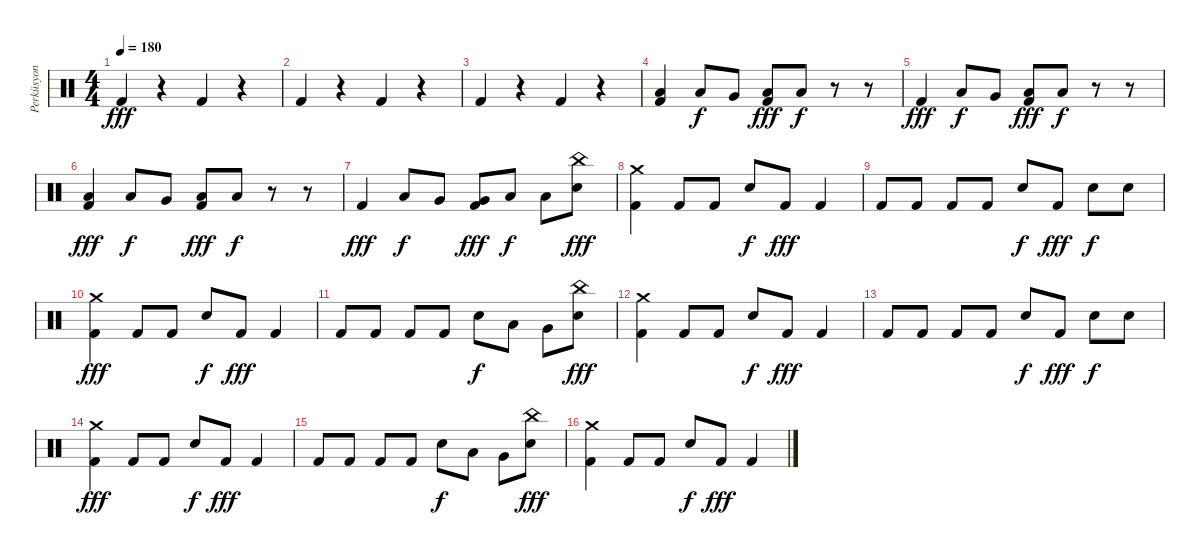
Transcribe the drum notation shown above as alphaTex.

\track ("Perküsyon" "Perküsyon") {instrument percussion}
\staff {score}
\articulation defaults
\ts (4 4)
\tempo 180
\clef neutral
\ks c "Kick (hit) 2".4{dy fff}
r.4 "Kick (hit) 2".4 r.4 |
"Kick (hit) 2".4 r.4 "Kick (hit) 2".4 r.4 |
"Kick (hit) 2".4 r.4 "Kick (hit) 2".4 r.4 |
("Low Floor Tom (hit)" "Kick (hit) 2").4 "Low Floor Tom (hit)".8{dy f} "Very Low Tom (hit)".8 ("Low Tom (hit)" "Kick (hit) 2").8{dy fff} "Low Floor Tom (hit)".8{dy f} r.8 r.8 |
"Kick (hit) 2".4{dy fff} "Low Floor Tom (hit)".8{dy f} "Very Low Tom (hit)".8 ("Low Tom (hit)" "Kick (hit) 2").8{dy fff} "Low Floor Tom (hit)".8{dy f} r.8 r.8 |
("Low Floor Tom (hit)" "Kick (hit) 2").4{dy fff} "Low Floor Tom (hit)".8{dy f} "Very Low Tom (hit)".8 ("Low Tom (hit)" "Kick (hit) 2").8{dy fff} "Low Floor Tom (hit)".8{dy f} r.8 r.8 |
"Kick (hit) 2".4{dy fff} "Low Floor Tom (hit)".8{dy f} "Very Low Tom (hit)".8 ("Very Low Tom (hit)" "Kick (hit) 2").8{dy fff} "Low Tom (hit)".8{dy f} "Low Tom (hit)".8 ("China (hit)" "Electric Snare (hit)").8{dy fff} |
("Crash medium (hit)" "Kick (hit) 2").4 "Kick (hit) 2".8 "Kick (hit) 2".8 "Electric Snare (hit)".8{dy f} "Kick (hit) 2".8{dy fff} "Kick (hit) 2".4 |
"Kick (hit) 2".8 "Kick (hit) 2".8 "Kick (hit) 2".8 "Kick (hit) 2".8 "Electric Snare (hit)".8{dy f} "Kick (hit) 2".8{dy fff} "Electric Snare (hit)".8{dy f} "Electric Snare (hit)".8 |
("Crash medium (hit)" "Kick (hit) 2").4{dy fff} "Kick (hit) 2".8 "Kick (hit) 2".8 "Electric Snare (hit)".8{dy f} "Kick (hit) 2".8{dy fff} "Kick (hit) 2".4 |
"Kick (hit) 2".8 "Kick (hit) 2".8 "Kick (hit) 2".8 "Kick (hit) 2".8 "Electric Snare (hit)".8{dy f} "Low Tom (hit)".8 "Very Low Tom (hit)".8 ("China (hit)" "Electric Snare (hit)").8{dy fff} |
("Crash medium (hit)" "Kick (hit) 2").4 "Kick (hit) 2".8 "Kick (hit) 2".8 "Electric Snare (hit)".8{dy f} "Kick (hit) 2".8{dy fff} "Kick (hit) 2".4 |
"Kick (hit) 2".8 "Kick (hit) 2".8 "Kick (hit) 2".8 "Kick (hit) 2".8 "Electric Snare (hit)".8{dy f} "Kick (hit) 2".8{dy fff} "Electric Snare (hit)".8{dy f} "Electric Snare (hit)".8 |
("Crash medium (hit)" "Kick (hit) 2").4{dy fff} "Kick (hit) 2".8 "Kick (hit) 2".8 "Electric Snare (hit)".8{dy f} "Kick (hit) 2".8{dy fff} "Kick (hit) 2".4 |
"Kick (hit) 2".8 "Kick (hit) 2".8 "Kick (hit) 2".8 "Kick (hit) 2".8 "Electric Snare (hit)".8{dy f} "Low Tom (hit)".8 "Very Low Tom (hit)".8 ("China (hit)" "Electric Snare (hit)").8{dy fff} |
("Crash medium (hit)" "Kick (hit) 2").4 "Kick (hit) 2".8 "Kick (hit) 2".8 "Electric Snare (hit)".8{dy f} "Kick (hit) 2".8{dy fff} "Kick (hit) 2".4
